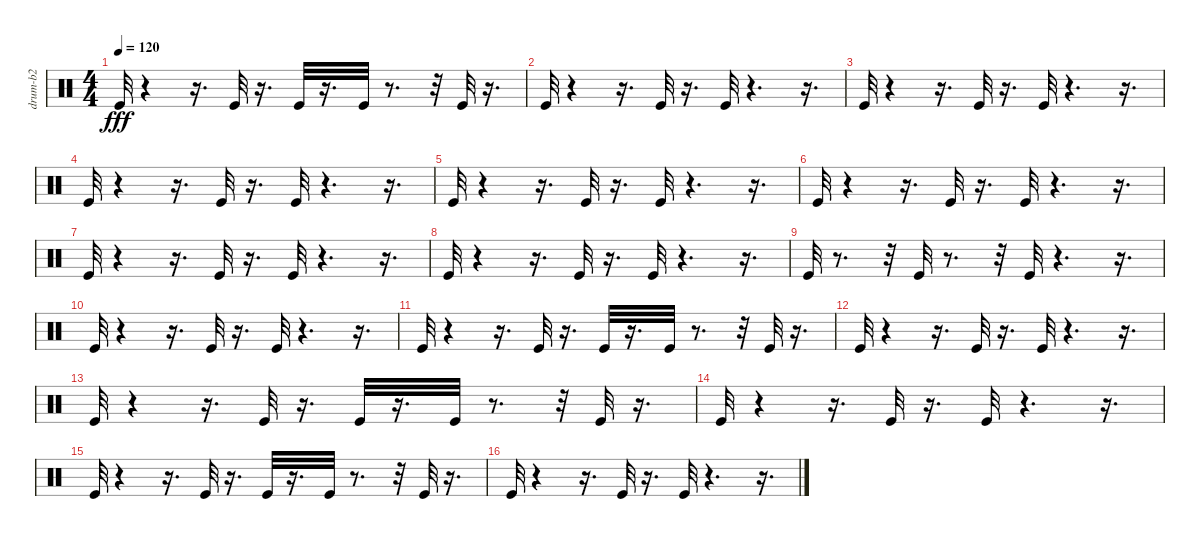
\track ("drum-b2" "drum-b2") {instrument percussion}
\staff {score}
\articulation defaults
\ts (4 4)
\tempo 120
\clef neutral
\ks c "Kick (hit)".32{dy fff}
r.4 r.16{d} "Kick (hit)".32 r.16{d} "Kick (hit)".32 r.16{d} "Kick (hit)".32 r.8{d} r.32 "Kick (hit)".32 r.16{d} |
"Kick (hit)".32 r.4 r.16{d} "Kick (hit)".32 r.16{d} "Kick (hit)".32 r.4{d} r.16{d} |
"Kick (hit)".32 r.4 r.16{d} "Kick (hit)".32 r.16{d} "Kick (hit)".32 r.4{d} r.16{d} |
"Kick (hit)".32 r.4 r.16{d} "Kick (hit)".32 r.16{d} "Kick (hit)".32 r.4{d} r.16{d} |
"Kick (hit)".32 r.4 r.16{d} "Kick (hit)".32 r.16{d} "Kick (hit)".32 r.4{d} r.16{d} |
"Kick (hit)".32 r.4 r.16{d} "Kick (hit)".32 r.16{d} "Kick (hit)".32 r.4{d} r.16{d} |
"Kick (hit)".32 r.4 r.16{d} "Kick (hit)".32 r.16{d} "Kick (hit)".32 r.4{d} r.16{d} |
"Kick (hit)".32 r.4 r.16{d} "Kick (hit)".32 r.16{d} "Kick (hit)".32 r.4{d} r.16{d} |
"Kick (hit)".32 r.8{d} r.32 "Kick (hit)".32 r.8{d} r.32 "Kick (hit)".32 r.4{d} r.16{d} |
"Kick (hit)".32 r.4 r.16{d} "Kick (hit)".32 r.16{d} "Kick (hit)".32 r.4{d} r.16{d} |
"Kick (hit)".32 r.4 r.16{d} "Kick (hit)".32 r.16{d} "Kick (hit)".32 r.16{d} "Kick (hit)".32 r.8{d} r.32 "Kick (hit)".32 r.16{d} |
"Kick (hit)".32 r.4 r.16{d} "Kick (hit)".32 r.16{d} "Kick (hit)".32 r.4{d} r.16{d} |
"Kick (hit)".32 r.4 r.16{d} "Kick (hit)".32 r.16{d} "Kick (hit)".32 r.16{d} "Kick (hit)".32 r.8{d} r.32 "Kick (hit)".32 r.16{d} |
"Kick (hit)".32 r.4 r.16{d} "Kick (hit)".32 r.16{d} "Kick (hit)".32 r.4{d} r.16{d} |
"Kick (hit)".32 r.4 r.16{d} "Kick (hit)".32 r.16{d} "Kick (hit)".32 r.16{d} "Kick (hit)".32 r.8{d} r.32 "Kick (hit)".32 r.16{d} |
"Kick (hit)".32 r.4 r.16{d} "Kick (hit)".32 r.16{d} "Kick (hit)".32 r.4{d} r.16{d}
